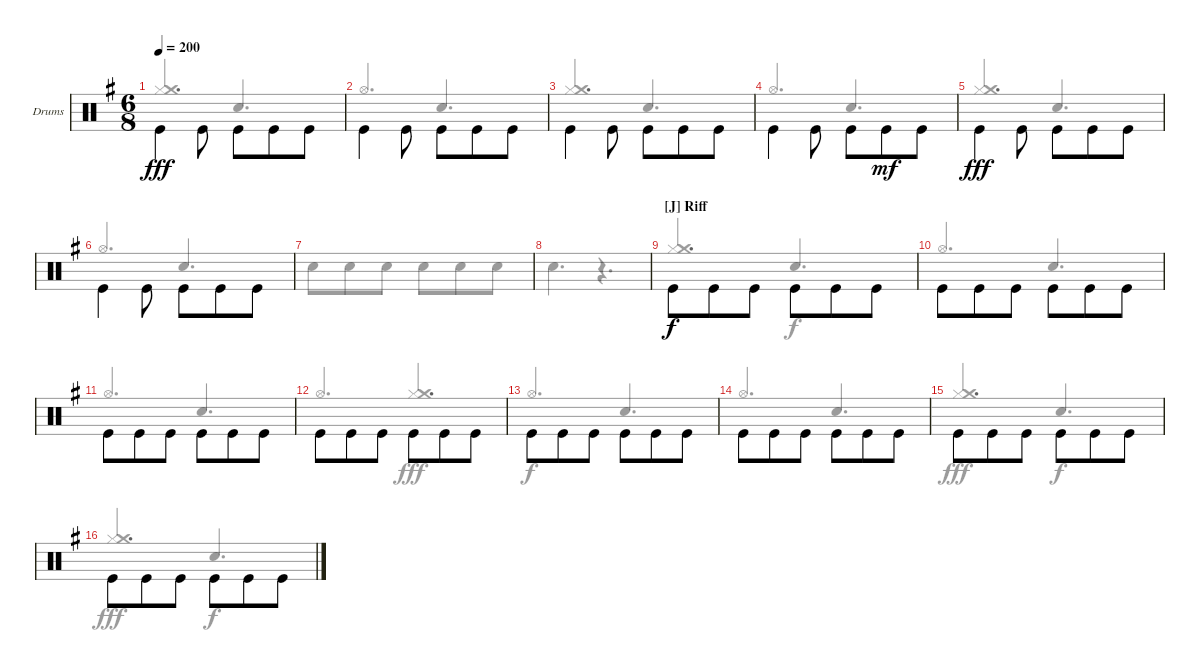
\bracketExtendMode groupsimilarinstruments
\firstSystemTrackNameOrientation horizontal
\otherSystemsTrackNameOrientation horizontal
\track ("Drumkit" "Drums") {instrument percussion}
\staff {score}
\articulation defaults
\voice
\ts (6 8)
\tempo 200
\clef neutral
\ks eminor "Kick (hit)".4{dy fff beam invert} "Kick (hit)".8{beam invert} "Kick (hit)".8{beam invert} "Kick (hit)".8 "Kick (hit)".8
|
"Kick (hit)".4{beam invert} "Kick (hit)".8{beam invert} "Kick (hit)".8 "Kick (hit)".8{beam invert} "Kick (hit)".8 |
"Kick (hit)".4{beam invert} "Kick (hit)".8{beam invert} "Kick (hit)".8{beam invert} "Kick (hit)".8 "Kick (hit)".8 |
"Kick (hit)".4{beam invert} "Kick (hit)".8{beam invert} "Kick (hit)".8 "Kick (hit)".8{dy mf beam invert} "Kick (hit)".8 |
"Kick (hit)".4{dy fff beam invert} "Kick (hit)".8{beam invert} "Kick (hit)".8{beam invert} "Kick (hit)".8 "Kick (hit)".8 |
"Kick (hit)".4{beam invert} "Kick (hit)".8{beam invert} "Kick (hit)".8 "Kick (hit)".8{beam invert} "Kick (hit)".8 |
|
|
\section ("J" "Riff")
"Kick (hit)".8{dy f beam invert} "Kick (hit)".8{beam invert} "Kick (hit)".8{beam invert} "Kick (hit)".8 "Kick (hit)".8 "Kick (hit)".8{beam invert} |
"Kick (hit)".8{beam invert} "Kick (hit)".8{beam invert} "Kick (hit)".8{beam invert} "Kick (hit)".8 "Kick (hit)".8 "Kick (hit)".8{beam invert} |
"Kick (hit)".8{beam invert} "Kick (hit)".8{beam invert} "Kick (hit)".8{beam invert} "Kick (hit)".8 "Kick (hit)".8 "Kick (hit)".8{beam invert} |
"Kick (hit)".8{beam invert} "Kick (hit)".8{beam invert} "Kick (hit)".8{beam invert} "Kick (hit)".8 "Kick (hit)".8 "Kick (hit)".8{beam invert} |
"Kick (hit)".8{beam invert} "Kick (hit)".8{beam invert} "Kick (hit)".8{beam invert} "Kick (hit)".8 "Kick (hit)".8 "Kick (hit)".8{beam invert} |
"Kick (hit)".8{beam invert} "Kick (hit)".8{beam invert} "Kick (hit)".8{beam invert} "Kick (hit)".8 "Kick (hit)".8 "Kick (hit)".8{beam invert} |
"Kick (hit)".8{beam invert} "Kick (hit)".8{beam invert} "Kick (hit)".8{beam invert} "Kick (hit)".8 "Kick (hit)".8 "Kick (hit)".8{beam invert} |
"Kick (hit)".8{beam invert} "Kick (hit)".8{beam invert} "Kick (hit)".8{beam invert} "Kick (hit)".8 "Kick (hit)".8 "Kick (hit)".8{beam invert}
\voice
\clef neutral
\ottava regular
\simile none
\ks eminor
("Hi-Hat (closed)" "Crash medium (hit)").4{d dy fff beam invert} "Snare (hit) 2".4{d beam invert} |
"Hi-Hat (open)".4{d beam invert} "Snare (hit) 2".4{d beam invert} |
("Hi-Hat (closed)" "Crash medium (hit)").4{d beam invert} "Snare (hit) 2".4{d beam invert} |
"Hi-Hat (open)".4{d beam invert} "Snare (hit) 2".4{d beam invert} |
("Hi-Hat (closed)" "Crash medium (hit)").4{d beam invert} "Snare (hit) 2".4{d beam invert} |
"Hi-Hat (open)".4{d beam invert} "Snare (hit) 2".4{d beam invert} |
"Snare (hit) 2".8 "Snare (hit) 2".8 "Snare (hit) 2".8 "Snare (hit) 2".8 "Snare (hit) 2".8 "Snare (hit) 2".8 |
"Snare (hit) 2".4{d} r.4{d} |
("Hi-Hat (closed)" "Crash medium (hit)").4{d beam invert} "Snare (hit) 2".4{d dy f beam invert} |
"Hi-Hat (open)".4{d beam invert} "Snare (hit) 2".4{d beam invert} |
"Hi-Hat (open)".4{d beam invert} "Snare (hit) 2".4{d beam invert} |
"Hi-Hat (open)".4{d beam invert} ("Hi-Hat (closed)" "Crash medium (hit)").4{d dy fff beam invert} |
"Hi-Hat (open)".4{d dy f beam invert} "Snare (hit) 2".4{d beam invert} |
"Hi-Hat (open)".4{d beam invert} "Snare (hit) 2".4{d beam invert} |
("Hi-Hat (closed)" "Crash medium (hit)").4{d dy fff beam invert} "Snare (hit) 2".4{d dy f beam invert} |
("Hi-Hat (closed)" "Crash medium (hit)").4{d dy fff beam invert} "Snare (hit) 2".4{d dy f beam invert}
